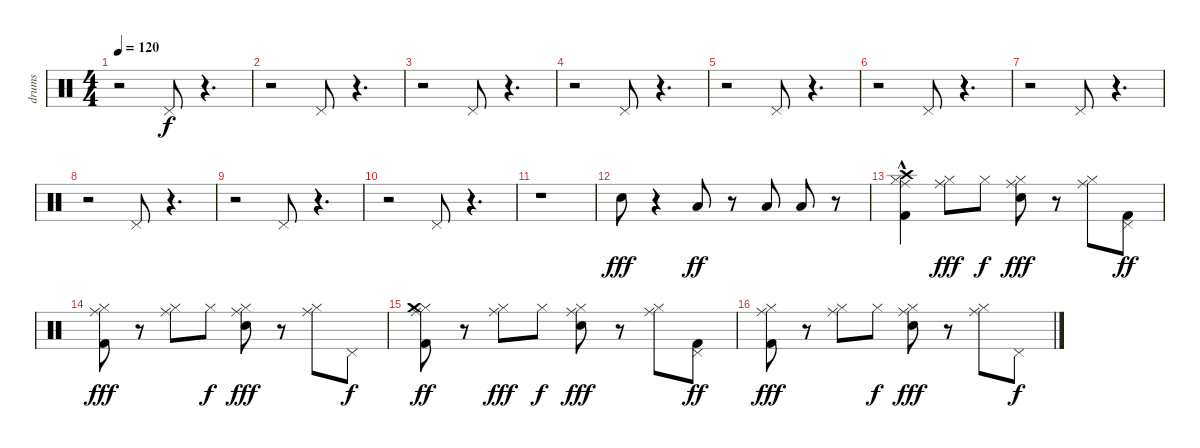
\track ("drums" "drums") {instrument percussion}
\staff {score}
\articulation defaults
\ts (4 4)
\tempo 120
\clef neutral
\ks c
r.2{dy f} "Pedal Hi-Hat (hit)".8 r.4{d} |
r.2 "Pedal Hi-Hat (hit)".8 r.4{d} |
r.2 "Pedal Hi-Hat (hit)".8 r.4{d} |
r.2 "Pedal Hi-Hat (hit)".8 r.4{d} |
r.2 "Pedal Hi-Hat (hit)".8 r.4{d} |
r.2 "Pedal Hi-Hat (hit)".8 r.4{d} |
r.2 "Pedal Hi-Hat (hit)".8 r.4{d} |
r.2 "Pedal Hi-Hat (hit)".8 r.4{d} |
r.2 "Pedal Hi-Hat (hit)".8 r.4{d} |
r.2 "Pedal Hi-Hat (hit)".8 r.4{d} |
r.1 |
"Snare (hit) 2".8{dy fff} r.4 "Low Tom (hit)".8{dy ff} r.8 "Low Tom (hit)".8 "Low Floor Tom (hit)".8 r.8 |
("Kick (hit) 2" "Hi-Hat (closed)" "Ride (middle)" "Crash high (hit)"{hac}).4 ("Hi-Hat (closed)" "Ride (middle)").8{dy fff} "Hi-Hat (closed)".8{dy f} ("Snare (hit) 2" "Hi-Hat (closed)" "Ride (middle)").8{dy fff} r.8 ("Hi-Hat (closed)" "Ride (middle)").8 ("Kick (hit) 2" "Pedal Hi-Hat (hit)").8{dy ff} |
("Kick (hit) 2" "Hi-Hat (closed)" "Ride (middle)").8{dy fff} r.8 ("Hi-Hat (closed)" "Ride (middle)").8 "Hi-Hat (closed)".8{dy f} ("Snare (hit) 2" "Hi-Hat (closed)" "Ride (middle)").8{dy fff} r.8 ("Hi-Hat (closed)" "Ride (middle)").8 "Pedal Hi-Hat (hit)".8{dy f} |
("Kick (hit) 2" "Hi-Hat (closed)" "Ride (middle)" "Crash medium (hit)").8{dy ff} r.8 ("Hi-Hat (closed)" "Ride (middle)").8{dy fff} "Hi-Hat (closed)".8{dy f} ("Snare (hit) 2" "Hi-Hat (closed)" "Ride (middle)").8{dy fff} r.8 ("Hi-Hat (closed)" "Ride (middle)").8 ("Kick (hit) 2" "Pedal Hi-Hat (hit)").8{dy ff} |
("Kick (hit) 2" "Hi-Hat (closed)" "Ride (middle)").8{dy fff} r.8 ("Hi-Hat (closed)" "Ride (middle)").8 "Hi-Hat (closed)".8{dy f} ("Snare (hit) 2" "Hi-Hat (closed)" "Ride (middle)").8{dy fff} r.8 ("Hi-Hat (closed)" "Ride (middle)").8 "Pedal Hi-Hat (hit)".8{dy f}
